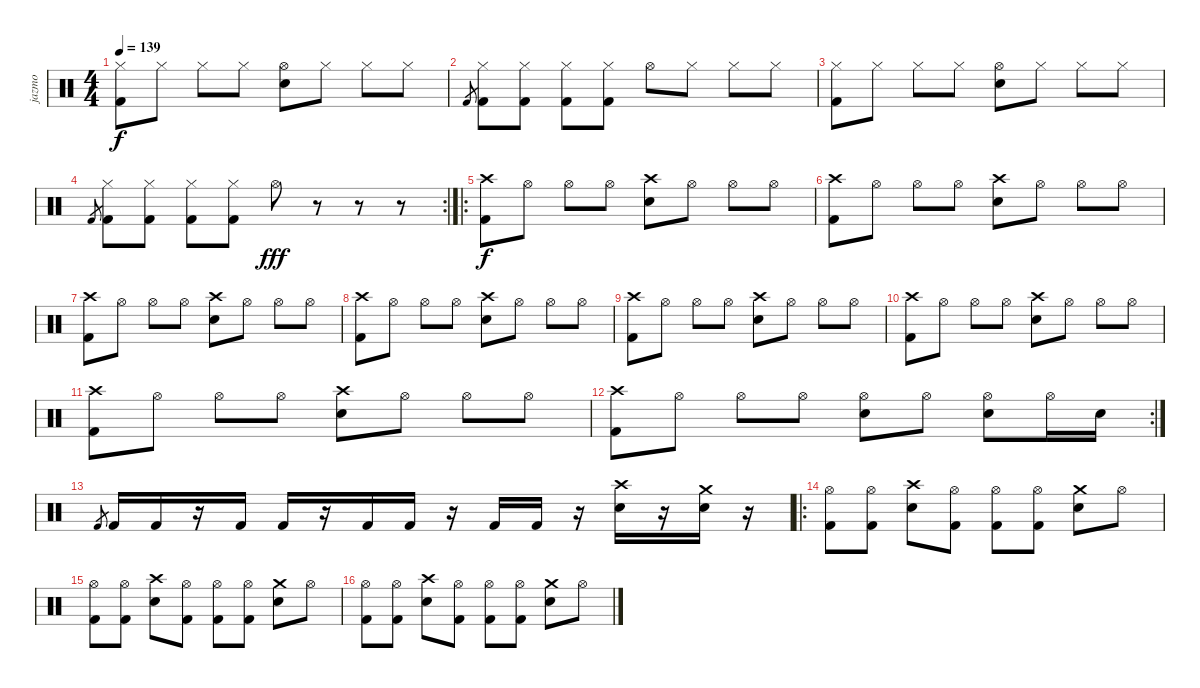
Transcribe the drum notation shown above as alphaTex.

\track ("jazmo" "jazmo") {instrument percussion}
\staff {score}
\articulation defaults
\ts (4 4)
\tempo 139
\clef neutral
\ks c
("Hi-Hat (closed)" "Kick (hit) 2").8{dy f} "Hi-Hat (closed)".8 "Hi-Hat (closed)".8 "Hi-Hat (closed)".8 ("Hi-Hat (open)" "Snare (hit) 2").8 "Hi-Hat (closed)".8 "Hi-Hat (closed)".8 "Hi-Hat (closed)".8 |
"Kick (hit) 2".8{gr} ("Hi-Hat (closed)" "Kick (hit) 2").8 ("Hi-Hat (closed)" "Kick (hit) 2").8 ("Hi-Hat (closed)" "Kick (hit) 2").8 ("Hi-Hat (closed)" "Kick (hit) 2").8 "Hi-Hat (open)".8 "Hi-Hat (closed)".8 "Hi-Hat (closed)".8 "Hi-Hat (closed)".8 |
("Hi-Hat (closed)" "Kick (hit) 2").8 "Hi-Hat (closed)".8 "Hi-Hat (closed)".8 "Hi-Hat (closed)".8 ("Hi-Hat (open)" "Snare (hit) 2").8 "Hi-Hat (closed)".8 "Hi-Hat (closed)".8 "Hi-Hat (closed)".8 |
\rc 2 "Kick (hit) 2".8{gr}
("Hi-Hat (closed)" "Kick (hit) 2").8 ("Hi-Hat (closed)" "Kick (hit) 2").8 ("Hi-Hat (closed)" "Kick (hit) 2").8 ("Hi-Hat (closed)" "Kick (hit) 2").8 "Hi-Hat (open)".8{dy fff} r.8 r.8 r.8 |
\ro
("Crash high (hit)" "Kick (hit) 2").8{dy f} "Hi-Hat (open)".8 "Hi-Hat (open)".8 "Hi-Hat (open)".8 ("Crash high (hit)" "Snare (hit) 2").8 "Hi-Hat (open)".8 "Hi-Hat (open)".8 "Hi-Hat (open)".8 |
("Crash high (hit)" "Kick (hit) 2").8 "Hi-Hat (open)".8 "Hi-Hat (open)".8 "Hi-Hat (open)".8 ("Crash high (hit)" "Snare (hit) 2").8 "Hi-Hat (open)".8 "Hi-Hat (open)".8 "Hi-Hat (open)".8 |
("Crash high (hit)" "Kick (hit) 2").8 "Hi-Hat (open)".8 "Hi-Hat (open)".8 "Hi-Hat (open)".8 ("Crash high (hit)" "Snare (hit) 2").8 "Hi-Hat (open)".8 "Hi-Hat (open)".8 "Hi-Hat (open)".8 |
("Crash high (hit)" "Kick (hit) 2").8 "Hi-Hat (open)".8 "Hi-Hat (open)".8 "Hi-Hat (open)".8 ("Crash high (hit)" "Snare (hit) 2").8 "Hi-Hat (open)".8 "Hi-Hat (open)".8 "Hi-Hat (open)".8 |
("Crash high (hit)" "Kick (hit) 2").8 "Hi-Hat (open)".8 "Hi-Hat (open)".8 "Hi-Hat (open)".8 ("Crash high (hit)" "Snare (hit) 2").8 "Hi-Hat (open)".8 "Hi-Hat (open)".8 "Hi-Hat (open)".8 |
("Crash high (hit)" "Kick (hit) 2").8 "Hi-Hat (open)".8 "Hi-Hat (open)".8 "Hi-Hat (open)".8 ("Crash high (hit)" "Snare (hit) 2").8 "Hi-Hat (open)".8 "Hi-Hat (open)".8 "Hi-Hat (open)".8 |
("Crash high (hit)" "Kick (hit) 2").8 "Hi-Hat (open)".8 "Hi-Hat (open)".8 "Hi-Hat (open)".8 ("Crash high (hit)" "Snare (hit) 2").8 "Hi-Hat (open)".8 "Hi-Hat (open)".8 "Hi-Hat (open)".8 |
\rc 2
("Crash high (hit)" "Kick (hit) 2").8 "Hi-Hat (open)".8 "Hi-Hat (open)".8 "Hi-Hat (open)".8 ("Hi-Hat (open)" "Snare (hit) 2").8 "Hi-Hat (open)".8 ("Hi-Hat (open)" "Snare (hit) 2").8 "Hi-Hat (open)".16 "Snare (hit) 2".16 |
"Kick (hit) 2".8{gr} "Kick (hit) 2".16 "Kick (hit) 2".16 r.16 "Kick (hit) 2".16 "Kick (hit) 2".16 r.16 "Kick (hit) 2".16 "Kick (hit) 2".16 r.16 "Kick (hit) 2".16 "Kick (hit) 2".16 r.16 ("Crash high (hit)" "Snare (hit) 2").16 r.16 ("Crash medium (hit)" "Snare (hit) 2").16 r.16 |
\ro
("Hi-Hat (open)" "Kick (hit) 2").8 ("Hi-Hat (open)" "Kick (hit) 2").8 ("Crash high (hit)" "Snare (hit) 2").8 ("Hi-Hat (open)" "Kick (hit) 2").8 ("Hi-Hat (open)" "Kick (hit) 2").8 ("Hi-Hat (open)" "Kick (hit) 2").8 ("Crash medium (hit)" "Snare (hit) 2").8 "Hi-Hat (open)".8 |
("Hi-Hat (open)" "Kick (hit) 2").8 ("Hi-Hat (open)" "Kick (hit) 2").8 ("Crash high (hit)" "Snare (hit) 2").8 ("Hi-Hat (open)" "Kick (hit) 2").8 ("Hi-Hat (open)" "Kick (hit) 2").8 ("Hi-Hat (open)" "Kick (hit) 2").8 ("Crash medium (hit)" "Snare (hit) 2").8 "Hi-Hat (open)".8 |
("Hi-Hat (open)" "Kick (hit) 2").8 ("Hi-Hat (open)" "Kick (hit) 2").8 ("Crash high (hit)" "Snare (hit) 2").8 ("Hi-Hat (open)" "Kick (hit) 2").8 ("Hi-Hat (open)" "Kick (hit) 2").8 ("Hi-Hat (open)" "Kick (hit) 2").8 ("Crash medium (hit)" "Snare (hit) 2").8 "Hi-Hat (open)".8
